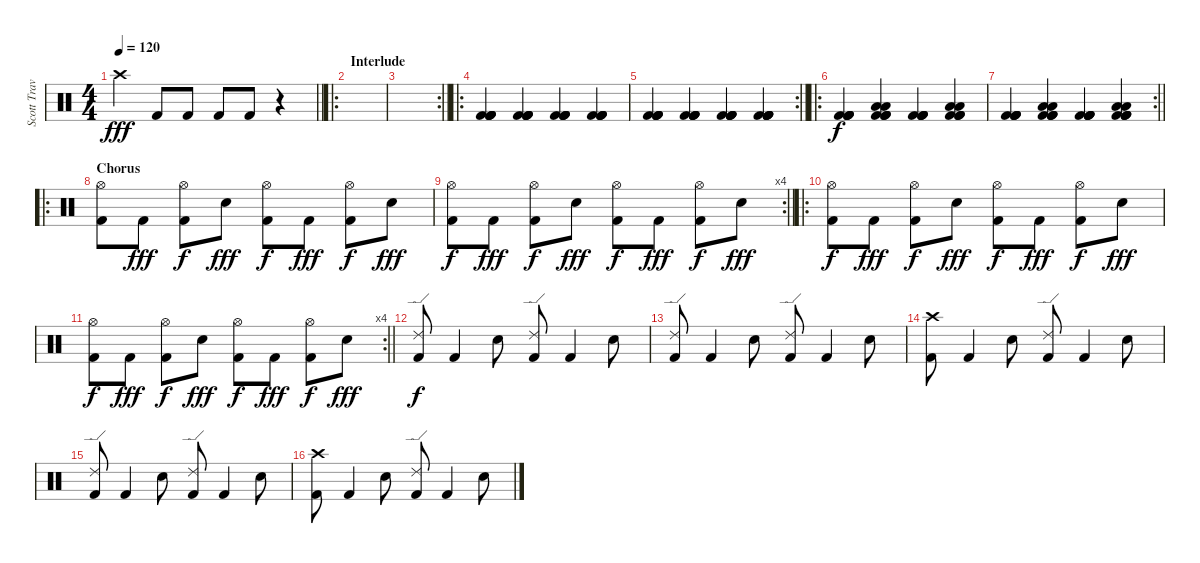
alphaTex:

\track ("Scott Travis" "Scott Trav") {instrument percussion}
\staff {score}
\articulation defaults
\ts (4 4)
\tempo 120
\clef neutral
\barLineRight lightlight
\ks c "Crash high (hit)".4{dy fff} "Kick (hit) 2".8 "Kick (hit) 2".8 "Kick (hit) 2".8 "Kick (hit) 2".8
r.4 |
\ro
\section ("" "Interlude")
|
\rc 2
\barLineRight lightlight
|
\ro
("Kick (hit) 2" "Kick (hit) 2" "Kick (hit) 2" "Kick (hit) 2" "Kick (hit) 2").4 ("Kick (hit) 2" "Kick (hit) 2" "Kick (hit) 2" "Kick (hit) 2" "Kick (hit) 2").4 ("Kick (hit) 2" "Kick (hit) 2" "Kick (hit) 2" "Kick (hit) 2" "Kick (hit) 2").4 ("Kick (hit) 2" "Kick (hit) 2" "Kick (hit) 2" "Kick (hit) 2" "Kick (hit) 2").4 |
\rc 2
\barLineRight lightlight
("Kick (hit) 2" "Kick (hit) 2" "Kick (hit) 2" "Kick (hit) 2" "Kick (hit) 2").4 ("Kick (hit) 2" "Kick (hit) 2" "Kick (hit) 2" "Kick (hit) 2" "Kick (hit) 2").4 ("Kick (hit) 2" "Kick (hit) 2" "Kick (hit) 2" "Kick (hit) 2" "Kick (hit) 2").4 ("Kick (hit) 2" "Kick (hit) 2" "Kick (hit) 2" "Kick (hit) 2" "Kick (hit) 2").4 |
\ro
("Kick (hit) 2" "Kick (hit) 2" "Kick (hit) 2" "Kick (hit) 2" "Kick (hit) 2").4{dy f} ("Low Floor Tom (hit)" "Low Tom (hit)" "Kick (hit) 2" "Kick (hit) 2" "Kick (hit) 2" "Kick (hit) 2").4 ("Kick (hit) 2" "Kick (hit) 2" "Kick (hit) 2" "Kick (hit) 2" "Kick (hit) 2").4 ("Low Floor Tom (hit)" "Low Tom (hit)" "Kick (hit) 2" "Kick (hit) 2" "Kick (hit) 2" "Kick (hit) 2").4 |
\rc 2
\barLineRight lightlight
("Kick (hit) 2" "Kick (hit) 2" "Kick (hit) 2" "Kick (hit) 2" "Kick (hit) 2").4 ("Low Floor Tom (hit)" "Low Tom (hit)" "Kick (hit) 2" "Kick (hit) 2" "Kick (hit) 2" "Kick (hit) 2").4 ("Kick (hit) 2" "Kick (hit) 2" "Kick (hit) 2" "Kick (hit) 2" "Kick (hit) 2").4 ("Low Floor Tom (hit)" "Low Tom (hit)" "Kick (hit) 2" "Kick (hit) 2" "Kick (hit) 2" "Kick (hit) 2").4 |
\ro
\section ("" "Chorus")
("Hi-Hat (open)" "Kick (hit) 2").8 "Kick (hit) 2".8{dy fff} ("Hi-Hat (open)" "Kick (hit) 2").8{dy f} "Electric Snare (hit)".8{dy fff} ("Hi-Hat (open)" "Kick (hit) 2").8{dy f} "Kick (hit) 2".8{dy fff} ("Hi-Hat (open)" "Kick (hit) 2").8{dy f} "Electric Snare (hit)".8{dy fff} |
\rc 4
\barLineRight lightlight
("Hi-Hat (open)" "Kick (hit) 2").8{dy f} "Kick (hit) 2".8{dy fff} ("Hi-Hat (open)" "Kick (hit) 2").8{dy f} "Electric Snare (hit)".8{dy fff} ("Hi-Hat (open)" "Kick (hit) 2").8{dy f} "Kick (hit) 2".8{dy fff} ("Hi-Hat (open)" "Kick (hit) 2").8{dy f} "Electric Snare (hit)".8{dy fff} |
\ro
("Hi-Hat (open)" "Kick (hit) 2").8{dy f} "Kick (hit) 2".8{dy fff} ("Hi-Hat (open)" "Kick (hit) 2").8{dy f} "Electric Snare (hit)".8{dy fff} ("Hi-Hat (open)" "Kick (hit) 2").8{dy f} "Kick (hit) 2".8{dy fff} ("Hi-Hat (open)" "Kick (hit) 2").8{dy f} "Electric Snare (hit)".8{dy fff} |
\rc 4
\barLineRight lightlight
("Hi-Hat (open)" "Kick (hit) 2").8{dy f} "Kick (hit) 2".8{dy fff} ("Hi-Hat (open)" "Kick (hit) 2").8{dy f} "Electric Snare (hit)".8{dy fff} ("Hi-Hat (open)" "Kick (hit) 2").8{dy f} "Kick (hit) 2".8{dy fff} ("Hi-Hat (open)" "Kick (hit) 2").8{dy f} "Electric Snare (hit)".8{dy fff} |
("Ride (edge) 2" "Kick (hit) 2").8{dy f} "Kick (hit) 2".4 "Electric Snare (hit)".8 ("Ride (edge) 2" "Kick (hit) 2").8 "Kick (hit) 2".4 "Electric Snare (hit)".8 |
("Ride (edge) 2" "Kick (hit) 2").8 "Kick (hit) 2".4 "Electric Snare (hit)".8 ("Ride (edge) 2" "Kick (hit) 2").8 "Kick (hit) 2".4 "Electric Snare (hit)".8 |
("Crash high (hit)" "Kick (hit) 2").8 "Kick (hit) 2".4 "Electric Snare (hit)".8 ("Ride (edge) 2" "Kick (hit) 2").8 "Kick (hit) 2".4 "Electric Snare (hit)".8 |
("Ride (edge) 2" "Kick (hit) 2").8 "Kick (hit) 2".4 "Electric Snare (hit)".8 ("Ride (edge) 2" "Kick (hit) 2").8 "Kick (hit) 2".4 "Electric Snare (hit)".8 |
("Crash high (hit)" "Kick (hit) 2").8 "Kick (hit) 2".4 "Electric Snare (hit)".8 ("Ride (edge) 2" "Kick (hit) 2").8 "Kick (hit) 2".4 "Electric Snare (hit)".8
